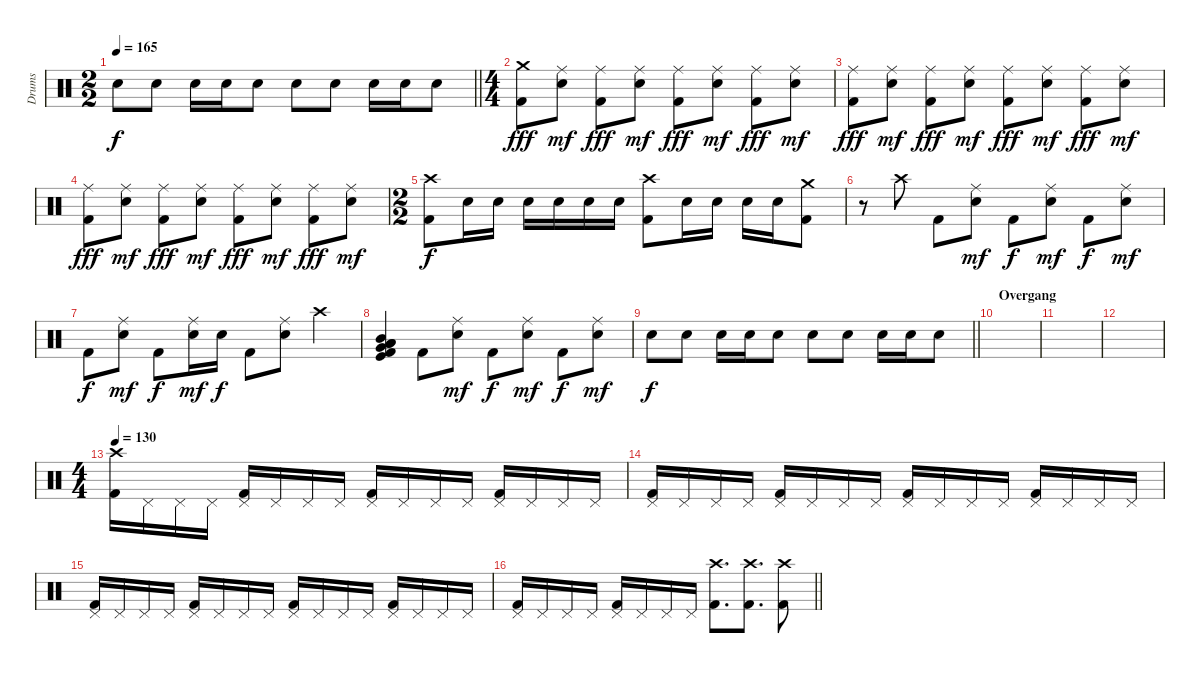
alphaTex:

\track ("Drums" "Drums") {instrument percussion}
\staff {score}
\articulation defaults
\ts (2 2)
\tempo 165
\clef neutral
\barLineRight lightlight
\ks c "Snare (hit) 2".8{dy f} "Snare (hit) 2".8 "Snare (hit) 2".16 "Snare (hit) 2".16 "Snare (hit) 2".8 "Snare (hit) 2".8 "Snare (hit) 2".8 "Snare (hit) 2".16 "Snare (hit) 2".16 "Snare (hit) 2".8
|
\ts (4 4)
("Crash medium (hit)" "Kick (hit) 2").8{dy fff} ("Ride (middle)" "Electric Snare (hit)").8{dy mf} ("Ride (middle)" "Kick (hit) 2").8{dy fff} ("Ride (middle)" "Electric Snare (hit)").8{dy mf} ("Ride (middle)" "Kick (hit) 2").8{dy fff} ("Ride (middle)" "Electric Snare (hit)").8{dy mf} ("Ride (middle)" "Kick (hit) 2").8{dy fff} ("Ride (middle)" "Electric Snare (hit)").8{dy mf} |
("Ride (middle)" "Kick (hit) 2").8{dy fff} ("Ride (middle)" "Electric Snare (hit)").8{dy mf} ("Ride (middle)" "Kick (hit) 2").8{dy fff} ("Ride (middle)" "Electric Snare (hit)").8{dy mf} ("Ride (middle)" "Kick (hit) 2").8{dy fff} ("Ride (middle)" "Electric Snare (hit)").8{dy mf} ("Ride (middle)" "Kick (hit) 2").8{dy fff} ("Ride (middle)" "Electric Snare (hit)").8{dy mf} |
("Ride (middle)" "Kick (hit) 2").8{dy fff} ("Ride (middle)" "Electric Snare (hit)").8{dy mf} ("Ride (middle)" "Kick (hit) 2").8{dy fff} ("Ride (middle)" "Electric Snare (hit)").8{dy mf} ("Ride (middle)" "Kick (hit) 2").8{dy fff} ("Ride (middle)" "Electric Snare (hit)").8{dy mf} ("Ride (middle)" "Kick (hit) 2").8{dy fff} ("Ride (middle)" "Electric Snare (hit)").8{dy mf} |
\ts (2 2)
("Crash high (hit)" "Kick (hit) 2").8{dy f} "Snare (hit) 2".16 "Snare (hit) 2".16 "Snare (hit) 2".16 "Snare (hit) 2".16 "Snare (hit) 2".16 "Snare (hit) 2".16 ("Crash high (hit)" "Kick (hit) 2").8 "Snare (hit) 2".16 "Snare (hit) 2".16 "Snare (hit) 2".16 "Snare (hit) 2".16 ("Crash medium (hit)" "Kick (hit) 2").8 |
r.8 "Crash high (hit)".8 "Kick (hit) 2".8 ("Ride (middle)" "Electric Snare (hit)").8{dy mf} "Kick (hit) 2".8{dy f} ("Ride (middle)" "Electric Snare (hit)").8{dy mf} "Kick (hit) 2".8{dy f} ("Ride (middle)" "Electric Snare (hit)").8{dy mf} |
"Kick (hit) 2".8{dy f} ("Ride (middle)" "Electric Snare (hit)").8{dy mf} "Kick (hit) 2".8{dy f} ("Ride (middle)" "Electric Snare (hit)").16{dy mf} "Electric Snare (hit)".16{dy f} "Kick (hit) 2".8 ("Ride (middle)" "Electric Snare (hit)").8 "Crash high (hit)".4 |
("Mid Tom (hit)" "Low Tom (hit)" "Very Low Tom (hit)" "Low Floor Tom (hit)" "Kick (hit)" "Kick (hit) 2").4 "Kick (hit) 2".8 ("Ride (middle)" "Electric Snare (hit)").8{dy mf} "Kick (hit) 2".8{dy f} ("Ride (middle)" "Electric Snare (hit)").8{dy mf} "Kick (hit) 2".8{dy f} ("Ride (middle)" "Electric Snare (hit)").8{dy mf} |
\barLineRight lightlight "Snare (hit) 2".8{dy f} "Snare (hit) 2".8 "Snare (hit) 2".16 "Snare (hit) 2".16 "Snare (hit) 2".8 "Snare (hit) 2".8 "Snare (hit) 2".8 "Snare (hit) 2".16 "Snare (hit) 2".16 "Snare (hit) 2".8
|
\section ("" "Overgang")
|
|
|
\ts (4 4)
\tempo 130
("Crash high (hit)" "Kick (hit) 2").16 "Pedal Hi-Hat (hit)".16 "Pedal Hi-Hat (hit)".16 "Pedal Hi-Hat (hit)".16 ("Pedal Hi-Hat (hit)" "Kick (hit) 2").16 "Pedal Hi-Hat (hit)".16 "Pedal Hi-Hat (hit)".16 "Pedal Hi-Hat (hit)".16 ("Pedal Hi-Hat (hit)" "Kick (hit) 2").16 "Pedal Hi-Hat (hit)".16 "Pedal Hi-Hat (hit)".16 "Pedal Hi-Hat (hit)".16 ("Pedal Hi-Hat (hit)" "Kick (hit) 2").16 "Pedal Hi-Hat (hit)".16 "Pedal Hi-Hat (hit)".16 "Pedal Hi-Hat (hit)".16 |
("Pedal Hi-Hat (hit)" "Kick (hit) 2").16 "Pedal Hi-Hat (hit)".16 "Pedal Hi-Hat (hit)".16 "Pedal Hi-Hat (hit)".16 ("Pedal Hi-Hat (hit)" "Kick (hit) 2").16 "Pedal Hi-Hat (hit)".16 "Pedal Hi-Hat (hit)".16 "Pedal Hi-Hat (hit)".16 ("Pedal Hi-Hat (hit)" "Kick (hit) 2").16 "Pedal Hi-Hat (hit)".16 "Pedal Hi-Hat (hit)".16 "Pedal Hi-Hat (hit)".16 ("Pedal Hi-Hat (hit)" "Kick (hit) 2").16 "Pedal Hi-Hat (hit)".16 "Pedal Hi-Hat (hit)".16 "Pedal Hi-Hat (hit)".16 |
("Pedal Hi-Hat (hit)" "Kick (hit) 2").16 "Pedal Hi-Hat (hit)".16 "Pedal Hi-Hat (hit)".16 "Pedal Hi-Hat (hit)".16 ("Pedal Hi-Hat (hit)" "Kick (hit) 2").16 "Pedal Hi-Hat (hit)".16 "Pedal Hi-Hat (hit)".16 "Pedal Hi-Hat (hit)".16 ("Pedal Hi-Hat (hit)" "Kick (hit) 2").16 "Pedal Hi-Hat (hit)".16 "Pedal Hi-Hat (hit)".16 "Pedal Hi-Hat (hit)".16 ("Pedal Hi-Hat (hit)" "Kick (hit) 2").16 "Pedal Hi-Hat (hit)".16 "Pedal Hi-Hat (hit)".16 "Pedal Hi-Hat (hit)".16 |
\barLineRight lightlight
("Pedal Hi-Hat (hit)" "Kick (hit) 2").16 "Pedal Hi-Hat (hit)".16 "Pedal Hi-Hat (hit)".16 "Pedal Hi-Hat (hit)".16 ("Pedal Hi-Hat (hit)" "Kick (hit) 2").16 "Pedal Hi-Hat (hit)".16 "Pedal Hi-Hat (hit)".16 "Pedal Hi-Hat (hit)".16 ("Crash high (hit)" "Kick (hit) 2").8{d} ("Crash high (hit)" "Kick (hit) 2").8{d} ("Crash high (hit)" "Kick (hit) 2").8
